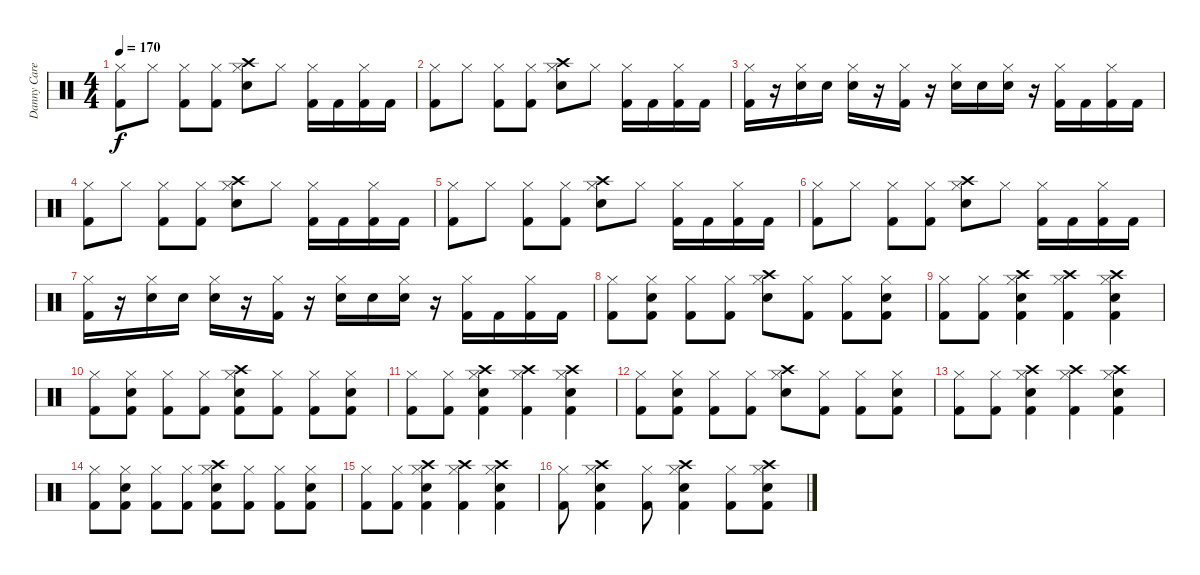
\track ("Danny Carey" "Danny Care") {instrument percussion}
\staff {score}
\articulation defaults
\ts (4 4)
\tempo 170
\clef neutral
\ks c
("Hi-Hat (closed)" "Kick (hit) 2").8{dy f} "Hi-Hat (closed)".8 ("Hi-Hat (closed)" "Kick (hit) 2").8 ("Hi-Hat (closed)" "Kick (hit) 2").8 ("Crash high (hit)" "Hi-Hat (closed)" "Snare (hit) 2").8 "Hi-Hat (closed)".8 ("Hi-Hat (closed)" "Kick (hit) 2").16 "Kick (hit) 2".16 ("Hi-Hat (closed)" "Kick (hit) 2").16 "Kick (hit) 2".16 |
("Hi-Hat (closed)" "Kick (hit) 2").8 "Hi-Hat (closed)".8 ("Hi-Hat (closed)" "Kick (hit) 2").8 ("Hi-Hat (closed)" "Kick (hit) 2").8 ("Crash high (hit)" "Hi-Hat (closed)" "Snare (hit) 2").8 "Hi-Hat (closed)".8 ("Hi-Hat (closed)" "Kick (hit) 2").16 "Kick (hit) 2".16 ("Hi-Hat (closed)" "Kick (hit) 2").16 "Kick (hit) 2".16 |
("Hi-Hat (closed)" "Kick (hit) 2").16 r.16 ("Hi-Hat (closed)" "Snare (hit) 2").16 "Snare (hit) 2".16 ("Hi-Hat (closed)" "Snare (hit) 2").16 r.16 ("Hi-Hat (closed)" "Kick (hit) 2").16 r.16 ("Hi-Hat (closed)" "Snare (hit) 2").16 "Snare (hit) 2".16 ("Hi-Hat (closed)" "Snare (hit) 2").16 r.16 ("Hi-Hat (closed)" "Kick (hit) 2").16 "Kick (hit) 2".16 ("Hi-Hat (closed)" "Kick (hit) 2").16 "Kick (hit) 2".16 |
("Hi-Hat (closed)" "Kick (hit) 2").8 "Hi-Hat (closed)".8 ("Hi-Hat (closed)" "Kick (hit) 2").8 ("Hi-Hat (closed)" "Kick (hit) 2").8 ("Crash high (hit)" "Hi-Hat (closed)" "Snare (hit) 2").8 "Hi-Hat (closed)".8 ("Hi-Hat (closed)" "Kick (hit) 2").16 "Kick (hit) 2".16 ("Hi-Hat (closed)" "Kick (hit) 2").16 "Kick (hit) 2".16 |
("Hi-Hat (closed)" "Kick (hit) 2").8 "Hi-Hat (closed)".8 ("Hi-Hat (closed)" "Kick (hit) 2").8 ("Hi-Hat (closed)" "Kick (hit) 2").8 ("Crash high (hit)" "Hi-Hat (closed)" "Snare (hit) 2").8 "Hi-Hat (closed)".8 ("Hi-Hat (closed)" "Kick (hit) 2").16 "Kick (hit) 2".16 ("Hi-Hat (closed)" "Kick (hit) 2").16 "Kick (hit) 2".16 |
("Hi-Hat (closed)" "Kick (hit) 2").8 "Hi-Hat (closed)".8 ("Hi-Hat (closed)" "Kick (hit) 2").8 ("Hi-Hat (closed)" "Kick (hit) 2").8 ("Crash high (hit)" "Hi-Hat (closed)" "Snare (hit) 2").8 "Hi-Hat (closed)".8 ("Hi-Hat (closed)" "Kick (hit) 2").16 "Kick (hit) 2".16 ("Hi-Hat (closed)" "Kick (hit) 2").16 "Kick (hit) 2".16 |
("Hi-Hat (closed)" "Kick (hit) 2").16 r.16 ("Hi-Hat (closed)" "Snare (hit) 2").16 "Snare (hit) 2".16 ("Hi-Hat (closed)" "Snare (hit) 2").16 r.16 ("Hi-Hat (closed)" "Kick (hit) 2").16 r.16 ("Hi-Hat (closed)" "Snare (hit) 2").16 "Snare (hit) 2".16 ("Hi-Hat (closed)" "Snare (hit) 2").16 r.16 ("Hi-Hat (closed)" "Kick (hit) 2").16 "Kick (hit) 2".16 ("Hi-Hat (closed)" "Kick (hit) 2").16 "Kick (hit) 2".16 |
("Hi-Hat (closed)" "Kick (hit) 2").8 ("Hi-Hat (closed)" "Snare (hit) 2" "Kick (hit) 2").8 ("Hi-Hat (closed)" "Kick (hit) 2").8 ("Hi-Hat (closed)" "Kick (hit) 2").8 ("Crash high (hit)" "Hi-Hat (closed)" "Snare (hit) 2").8 ("Hi-Hat (closed)" "Kick (hit) 2").8 ("Hi-Hat (closed)" "Kick (hit) 2").8 ("Hi-Hat (closed)" "Snare (hit) 2" "Kick (hit) 2").8 |
("Hi-Hat (closed)" "Kick (hit) 2").8 ("Hi-Hat (closed)" "Kick (hit) 2").8 ("Crash high (hit)" "Hi-Hat (closed)" "Snare (hit) 2" "Kick (hit) 2").4 ("Crash high (hit)" "Hi-Hat (closed)" "Kick (hit) 2").4 ("Crash high (hit)" "Hi-Hat (closed)" "Snare (hit) 2" "Kick (hit) 2").4 |
("Hi-Hat (closed)" "Kick (hit) 2").8 ("Hi-Hat (closed)" "Snare (hit) 2" "Kick (hit) 2").8 ("Hi-Hat (closed)" "Kick (hit) 2").8 ("Hi-Hat (closed)" "Kick (hit) 2").8 ("Crash high (hit)" "Hi-Hat (closed)" "Snare (hit) 2" "Kick (hit) 2").8 ("Hi-Hat (closed)" "Kick (hit) 2").8 ("Hi-Hat (closed)" "Kick (hit) 2").8 ("Hi-Hat (closed)" "Snare (hit) 2" "Kick (hit) 2").8 |
("Hi-Hat (closed)" "Kick (hit) 2").8 ("Hi-Hat (closed)" "Kick (hit) 2").8 ("Crash high (hit)" "Hi-Hat (closed)" "Snare (hit) 2" "Kick (hit) 2").4 ("Crash high (hit)" "Hi-Hat (closed)" "Kick (hit) 2").4 ("Crash high (hit)" "Hi-Hat (closed)" "Snare (hit) 2" "Kick (hit) 2").4 |
("Hi-Hat (closed)" "Kick (hit) 2").8 ("Hi-Hat (closed)" "Snare (hit) 2" "Kick (hit) 2").8 ("Hi-Hat (closed)" "Kick (hit) 2").8 ("Hi-Hat (closed)" "Kick (hit) 2").8 ("Crash high (hit)" "Hi-Hat (closed)" "Snare (hit) 2").8 ("Hi-Hat (closed)" "Kick (hit) 2").8 ("Hi-Hat (closed)" "Kick (hit) 2").8 ("Hi-Hat (closed)" "Snare (hit) 2" "Kick (hit) 2").8 |
("Hi-Hat (closed)" "Kick (hit) 2").8 ("Hi-Hat (closed)" "Kick (hit) 2").8 ("Crash high (hit)" "Hi-Hat (closed)" "Snare (hit) 2" "Kick (hit) 2").4 ("Crash high (hit)" "Hi-Hat (closed)" "Kick (hit) 2").4 ("Crash high (hit)" "Hi-Hat (closed)" "Snare (hit) 2" "Kick (hit) 2").4 |
("Hi-Hat (closed)" "Kick (hit) 2").8 ("Hi-Hat (closed)" "Snare (hit) 2" "Kick (hit) 2").8 ("Hi-Hat (closed)" "Kick (hit) 2").8 ("Hi-Hat (closed)" "Kick (hit) 2").8 ("Crash high (hit)" "Hi-Hat (closed)" "Snare (hit) 2" "Kick (hit) 2").8 ("Hi-Hat (closed)" "Kick (hit) 2").8 ("Hi-Hat (closed)" "Kick (hit) 2").8 ("Hi-Hat (closed)" "Snare (hit) 2" "Kick (hit) 2").8 |
("Hi-Hat (closed)" "Kick (hit) 2").8 ("Hi-Hat (closed)" "Kick (hit) 2").8 ("Crash high (hit)" "Hi-Hat (closed)" "Snare (hit) 2" "Kick (hit) 2").4 ("Crash high (hit)" "Hi-Hat (closed)" "Kick (hit) 2").4 ("Crash high (hit)" "Hi-Hat (closed)" "Snare (hit) 2" "Kick (hit) 2").4 |
("Hi-Hat (closed)" "Kick (hit) 2").8 ("Crash high (hit)" "Hi-Hat (closed)" "Snare (hit) 2" "Kick (hit) 2").4 ("Hi-Hat (closed)" "Kick (hit) 2").8 ("Crash high (hit)" "Hi-Hat (closed)" "Snare (hit) 2" "Kick (hit) 2").4 ("Hi-Hat (closed)" "Kick (hit) 2").8 ("Crash high (hit)" "Hi-Hat (closed)" "Snare (hit) 2" "Kick (hit) 2").8
